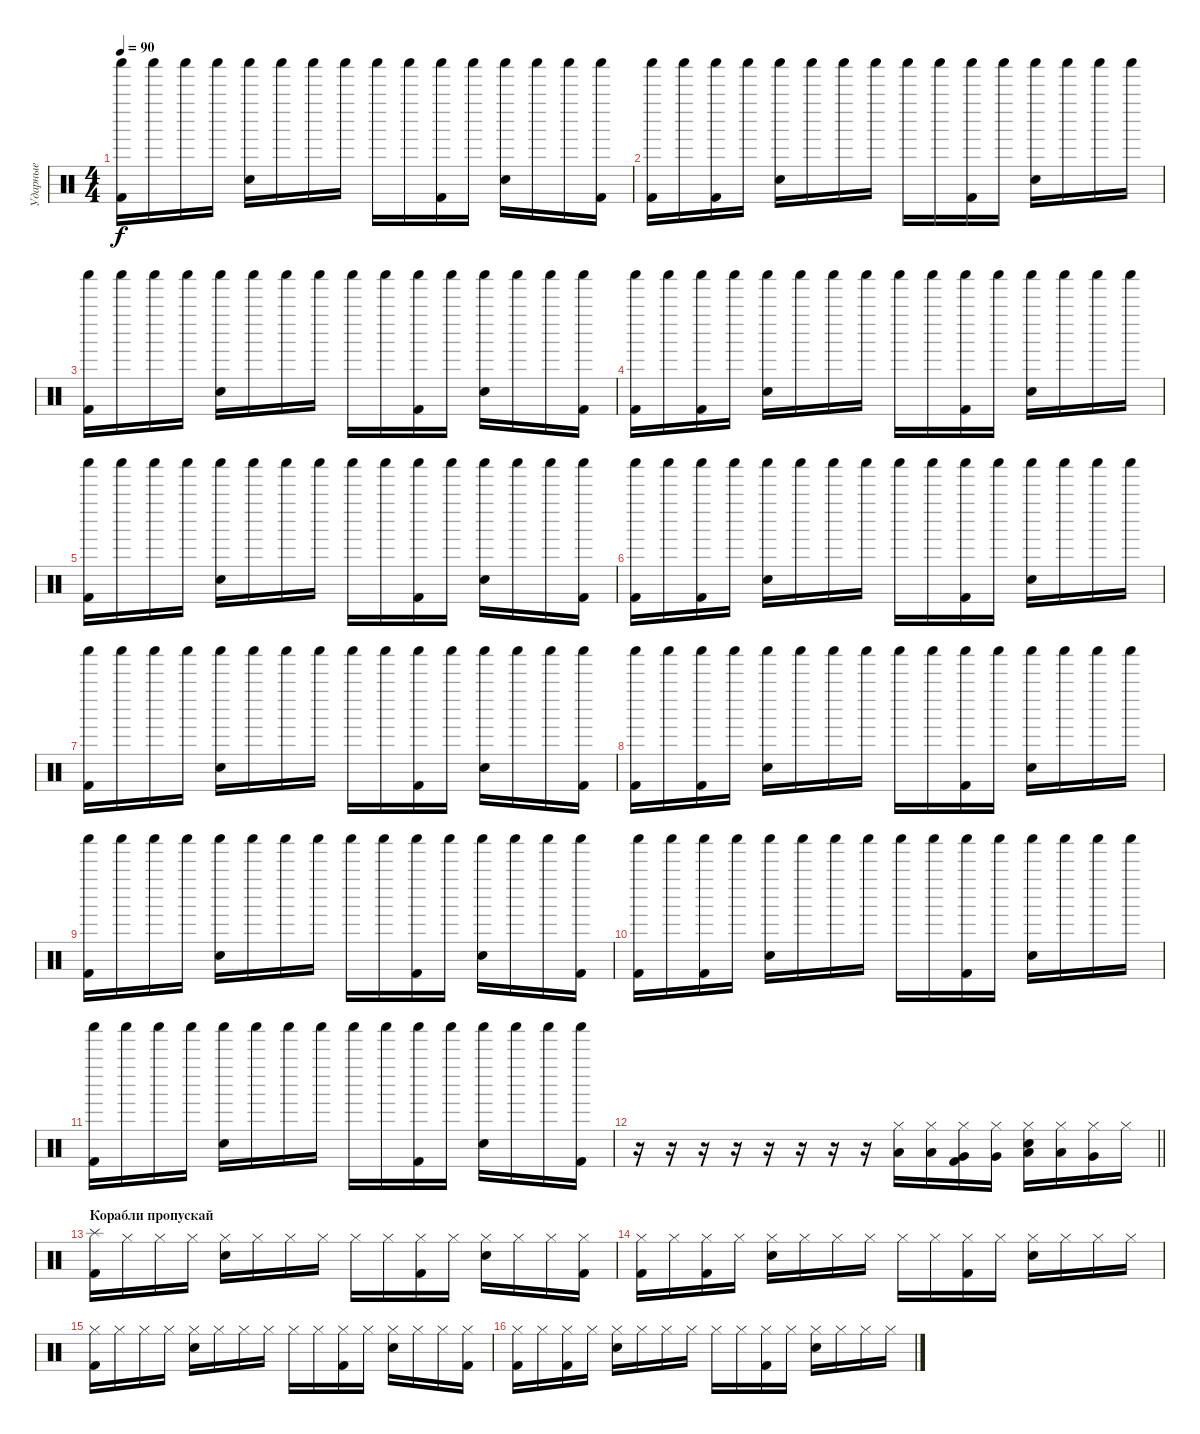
\track ("Ударные" "Ударные") {instrument percussion}
\staff {score}
\articulation defaults
\ts (4 4)
\tempo 90
\clef neutral
\ks c
("Shaker (hit)" "Kick (hit) 2").16{dy f} "Shaker (hit)".16 "Shaker (hit)".16 "Shaker (hit)".16 ("Shaker (hit)" "Electric Snare (hit)").16 "Shaker (hit)".16 "Shaker (hit)".16 "Shaker (hit)".16 "Shaker (hit)".16 "Shaker (hit)".16 ("Shaker (hit)" "Kick (hit) 2").16 "Shaker (hit)".16 ("Shaker (hit)" "Electric Snare (hit)").16 "Shaker (hit)".16 "Shaker (hit)".16 ("Shaker (hit)" "Kick (hit) 2").16 |
("Shaker (hit)" "Kick (hit) 2").16 "Shaker (hit)".16 ("Shaker (hit)" "Kick (hit) 2").16 "Shaker (hit)".16 ("Shaker (hit)" "Electric Snare (hit)").16 "Shaker (hit)".16 "Shaker (hit)".16 "Shaker (hit)".16 "Shaker (hit)".16 "Shaker (hit)".16 ("Shaker (hit)" "Kick (hit) 2").16 "Shaker (hit)".16 ("Shaker (hit)" "Electric Snare (hit)").16 "Shaker (hit)".16 "Shaker (hit)".16 "Shaker (hit)".16 |
("Shaker (hit)" "Kick (hit) 2").16 "Shaker (hit)".16 "Shaker (hit)".16 "Shaker (hit)".16 ("Shaker (hit)" "Electric Snare (hit)").16 "Shaker (hit)".16 "Shaker (hit)".16 "Shaker (hit)".16 "Shaker (hit)".16 "Shaker (hit)".16 ("Shaker (hit)" "Kick (hit) 2").16 "Shaker (hit)".16 ("Shaker (hit)" "Electric Snare (hit)").16 "Shaker (hit)".16 "Shaker (hit)".16 ("Shaker (hit)" "Kick (hit) 2").16 |
("Shaker (hit)" "Kick (hit) 2").16 "Shaker (hit)".16 ("Shaker (hit)" "Kick (hit) 2").16 "Shaker (hit)".16 ("Shaker (hit)" "Electric Snare (hit)").16 "Shaker (hit)".16 "Shaker (hit)".16 "Shaker (hit)".16 "Shaker (hit)".16 "Shaker (hit)".16 ("Shaker (hit)" "Kick (hit) 2").16 "Shaker (hit)".16 ("Shaker (hit)" "Electric Snare (hit)").16 "Shaker (hit)".16 "Shaker (hit)".16 "Shaker (hit)".16 |
("Shaker (hit)" "Kick (hit) 2").16 "Shaker (hit)".16 "Shaker (hit)".16 "Shaker (hit)".16 ("Shaker (hit)" "Electric Snare (hit)").16 "Shaker (hit)".16 "Shaker (hit)".16 "Shaker (hit)".16 "Shaker (hit)".16 "Shaker (hit)".16 ("Shaker (hit)" "Kick (hit) 2").16 "Shaker (hit)".16 ("Shaker (hit)" "Electric Snare (hit)").16 "Shaker (hit)".16 "Shaker (hit)".16 ("Shaker (hit)" "Kick (hit) 2").16 |
("Shaker (hit)" "Kick (hit) 2").16 "Shaker (hit)".16 ("Shaker (hit)" "Kick (hit) 2").16 "Shaker (hit)".16 ("Shaker (hit)" "Electric Snare (hit)").16 "Shaker (hit)".16 "Shaker (hit)".16 "Shaker (hit)".16 "Shaker (hit)".16 "Shaker (hit)".16 ("Shaker (hit)" "Kick (hit) 2").16 "Shaker (hit)".16 ("Shaker (hit)" "Electric Snare (hit)").16 "Shaker (hit)".16 "Shaker (hit)".16 "Shaker (hit)".16 |
("Shaker (hit)" "Kick (hit) 2").16 "Shaker (hit)".16 "Shaker (hit)".16 "Shaker (hit)".16 ("Shaker (hit)" "Electric Snare (hit)").16 "Shaker (hit)".16 "Shaker (hit)".16 "Shaker (hit)".16 "Shaker (hit)".16 "Shaker (hit)".16 ("Shaker (hit)" "Kick (hit) 2").16 "Shaker (hit)".16 ("Shaker (hit)" "Electric Snare (hit)").16 "Shaker (hit)".16 "Shaker (hit)".16 ("Shaker (hit)" "Kick (hit) 2").16 |
("Shaker (hit)" "Kick (hit) 2").16 "Shaker (hit)".16 ("Shaker (hit)" "Kick (hit) 2").16 "Shaker (hit)".16 ("Shaker (hit)" "Electric Snare (hit)").16 "Shaker (hit)".16 "Shaker (hit)".16 "Shaker (hit)".16 "Shaker (hit)".16 "Shaker (hit)".16 ("Shaker (hit)" "Kick (hit) 2").16 "Shaker (hit)".16 ("Shaker (hit)" "Electric Snare (hit)").16 "Shaker (hit)".16 "Shaker (hit)".16 "Shaker (hit)".16 |
("Shaker (hit)" "Kick (hit) 2").16 "Shaker (hit)".16 "Shaker (hit)".16 "Shaker (hit)".16 ("Shaker (hit)" "Electric Snare (hit)").16 "Shaker (hit)".16 "Shaker (hit)".16 "Shaker (hit)".16 "Shaker (hit)".16 "Shaker (hit)".16 ("Shaker (hit)" "Kick (hit) 2").16 "Shaker (hit)".16 ("Shaker (hit)" "Electric Snare (hit)").16 "Shaker (hit)".16 "Shaker (hit)".16 ("Shaker (hit)" "Kick (hit) 2").16 |
("Shaker (hit)" "Kick (hit) 2").16 "Shaker (hit)".16 ("Shaker (hit)" "Kick (hit) 2").16 "Shaker (hit)".16 ("Shaker (hit)" "Electric Snare (hit)").16 "Shaker (hit)".16 "Shaker (hit)".16 "Shaker (hit)".16 "Shaker (hit)".16 "Shaker (hit)".16 ("Shaker (hit)" "Kick (hit) 2").16 "Shaker (hit)".16 ("Shaker (hit)" "Electric Snare (hit)").16 "Shaker (hit)".16 "Shaker (hit)".16 "Shaker (hit)".16 |
("Shaker (hit)" "Kick (hit) 2").16 "Shaker (hit)".16 "Shaker (hit)".16 "Shaker (hit)".16 ("Shaker (hit)" "Electric Snare (hit)").16 "Shaker (hit)".16 "Shaker (hit)".16 "Shaker (hit)".16 "Shaker (hit)".16 "Shaker (hit)".16 ("Shaker (hit)" "Kick (hit) 2").16 "Shaker (hit)".16 ("Shaker (hit)" "Electric Snare (hit)").16 "Shaker (hit)".16 "Shaker (hit)".16 ("Shaker (hit)" "Kick (hit) 2").16 |
\barLineRight lightlight
r.16 r.16 r.16 r.16 r.16 r.16 r.16 r.16 ("Hi-Hat (closed)" "Low Tom (hit)").16 ("Hi-Hat (closed)" "Low Tom (hit)").16 ("Hi-Hat (closed)" "Kick (hit) 2" "Very Low Tom (hit)").16 ("Hi-Hat (closed)" "Very Low Tom (hit)").16 ("Hi-Hat (closed)" "Electric Snare (hit)" "Low Floor Tom (hit)").16 ("Hi-Hat (closed)" "Low Floor Tom (hit)").16 ("Hi-Hat (closed)" "Very Low Tom (hit)").16 "Hi-Hat (closed)".16 |
\section ("" "Корабли пропускай")
("Splash (hit)" "Kick (hit) 2").16 "Hi-Hat (closed)".16 "Hi-Hat (closed)".16 "Hi-Hat (closed)".16 ("Hi-Hat (closed)" "Electric Snare (hit)").16 "Hi-Hat (closed)".16 "Hi-Hat (closed)".16 "Hi-Hat (closed)".16 "Hi-Hat (closed)".16 "Hi-Hat (closed)".16 ("Hi-Hat (closed)" "Kick (hit) 2").16 "Hi-Hat (closed)".16 ("Hi-Hat (closed)" "Electric Snare (hit)").16 "Hi-Hat (closed)".16 "Hi-Hat (closed)".16 ("Hi-Hat (closed)" "Kick (hit) 2").16 |
("Hi-Hat (closed)" "Kick (hit) 2").16 "Hi-Hat (closed)".16 ("Hi-Hat (closed)" "Kick (hit) 2").16 "Hi-Hat (closed)".16 ("Hi-Hat (closed)" "Electric Snare (hit)").16 "Hi-Hat (closed)".16 "Hi-Hat (closed)".16 "Hi-Hat (closed)".16 "Hi-Hat (closed)".16 "Hi-Hat (closed)".16 ("Hi-Hat (closed)" "Kick (hit) 2").16 "Hi-Hat (closed)".16 ("Hi-Hat (closed)" "Electric Snare (hit)").16 "Hi-Hat (closed)".16 "Hi-Hat (closed)".16 "Hi-Hat (closed)".16 |
("Hi-Hat (closed)" "Kick (hit) 2").16 "Hi-Hat (closed)".16 "Hi-Hat (closed)".16 "Hi-Hat (closed)".16 ("Hi-Hat (closed)" "Electric Snare (hit)").16 "Hi-Hat (closed)".16 "Hi-Hat (closed)".16 "Hi-Hat (closed)".16 "Hi-Hat (closed)".16 "Hi-Hat (closed)".16 ("Hi-Hat (closed)" "Kick (hit) 2").16 "Hi-Hat (closed)".16 ("Hi-Hat (closed)" "Electric Snare (hit)").16 "Hi-Hat (closed)".16 "Hi-Hat (closed)".16 ("Hi-Hat (closed)" "Kick (hit) 2").16 |
("Hi-Hat (closed)" "Kick (hit) 2").16 "Hi-Hat (closed)".16 ("Hi-Hat (closed)" "Kick (hit) 2").16 "Hi-Hat (closed)".16 ("Hi-Hat (closed)" "Electric Snare (hit)").16 "Hi-Hat (closed)".16 "Hi-Hat (closed)".16 "Hi-Hat (closed)".16 "Hi-Hat (closed)".16 "Hi-Hat (closed)".16 ("Hi-Hat (closed)" "Kick (hit) 2").16 "Hi-Hat (closed)".16 ("Hi-Hat (closed)" "Electric Snare (hit)").16 "Hi-Hat (closed)".16 "Hi-Hat (closed)".16 "Hi-Hat (closed)".16
